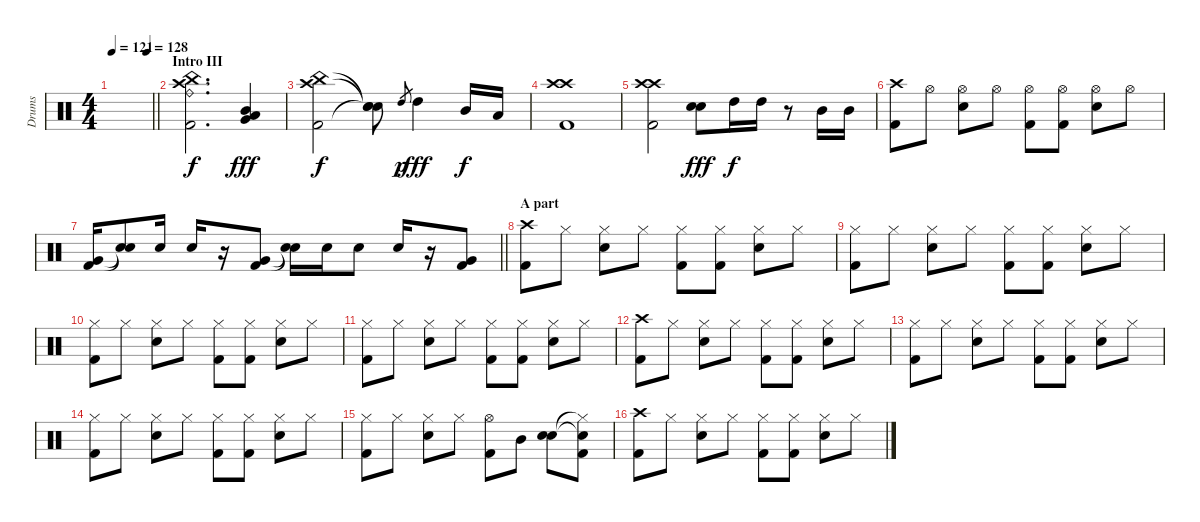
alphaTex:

\track ("Drums" "Drums") {instrument percussion}
\staff {score}
\articulation defaults
\ts (4 4)
\tempo 121
\tempo (128 0.875)
\clef neutral
\barLineRight lightlight
\ks c
|
\section ("" "Intro III")
("Ride (bell)" "Crash high (hit)" "China (hit)" "Kick (hit) 2").2{d} ("Mid Tom (hit)" "Low Floor Tom (hit)" "Very Low Tom (hit)").4{dy fff} |
("China (hit)" "Crash high (hit)" "Kick (hit) 2").2{dy f} ("Snare (hit)"{t} "Snare (hit)"{t} "Snare (hit)"{t}).8 "High Tom (hit)".8{gr dy p} "High Tom (hit)".4{dy fff} "Mid Tom (hit)".16{dy f} "Low Tom (hit)".16 |
("Crash high (hit)" "Crash high (hit)" "Kick (hit) 2").1 |
("Crash high (hit)" "Crash high (hit)" "Kick (hit) 2").2 ("Snare (hit) 2" "Snare (hit) 2").8{dy fff} "High Tom (hit)".16{dy f} "High Tom (hit)".16 r.8 "Mid Tom (hit)".16 "Mid Tom (hit)".16 |
("Crash high (hit)" "Kick (hit) 2").8 "Hi-Hat (open)".8 ("Hi-Hat (open)" "Snare (hit) 2").8 "Hi-Hat (open)".8 ("Hi-Hat (open)" "Kick (hit) 2").8 ("Hi-Hat (open)" "Kick (hit) 2").8 ("Hi-Hat (open)" "Snare (hit) 2").8 "Hi-Hat (open)".8 |
\barLineRight lightlight
("Very Low Tom (hit)" "Kick (hit) 2").16 ("Snare (hit)"{t} "Snare (hit)"{t}).8 "Snare (hit) 2".16 "Snare (hit) 2".16 r.16 ("Very Low Tom (hit)" "Kick (hit) 2").8 ("Snare (hit)"{t} "Snare (hit)"{t}).16 "Snare (hit) 2".16 "Snare (hit) 2".8 "Snare (hit) 2".16 r.16 ("Very Low Tom (hit)" "Kick (hit) 2").8 |
\section ("" "A part")
("Crash high (hit)" "Kick (hit) 2").8 "Hi-Hat (closed)".8{txt ""} ("Hi-Hat (closed)" "Snare (hit) 2").8 "Hi-Hat (closed)".8 ("Hi-Hat (closed)" "Kick (hit) 2").8 ("Hi-Hat (closed)" "Kick (hit) 2").8 ("Hi-Hat (closed)" "Snare (hit) 2").8 "Hi-Hat (closed)".8 |
("Hi-Hat (closed)" "Kick (hit) 2").8 "Hi-Hat (closed)".8 ("Hi-Hat (closed)" "Snare (hit) 2").8 "Hi-Hat (closed)".8 ("Hi-Hat (closed)" "Kick (hit) 2").8 ("Hi-Hat (closed)" "Kick (hit) 2").8 ("Hi-Hat (closed)" "Snare (hit) 2").8 "Hi-Hat (closed)".8 |
("Hi-Hat (closed)" "Kick (hit) 2").8 "Hi-Hat (closed)".8 ("Hi-Hat (closed)" "Snare (hit) 2").8 "Hi-Hat (closed)".8 ("Hi-Hat (closed)" "Kick (hit) 2").8 ("Hi-Hat (closed)" "Kick (hit) 2").8 ("Hi-Hat (closed)" "Snare (hit) 2").8 "Hi-Hat (closed)".8 |
("Hi-Hat (closed)" "Kick (hit) 2").8 "Hi-Hat (closed)".8 ("Hi-Hat (closed)" "Snare (hit) 2").8 "Hi-Hat (closed)".8 ("Hi-Hat (closed)" "Kick (hit) 2").8 ("Hi-Hat (closed)" "Kick (hit) 2").8 ("Hi-Hat (closed)" "Snare (hit) 2").8 "Hi-Hat (closed)".8 |
("Crash high (hit)" "Kick (hit) 2").8 "Hi-Hat (closed)".8 ("Hi-Hat (closed)" "Snare (hit) 2").8 "Hi-Hat (closed)".8 ("Hi-Hat (closed)" "Kick (hit) 2").8 ("Hi-Hat (closed)" "Kick (hit) 2").8 ("Hi-Hat (closed)" "Snare (hit) 2").8 "Hi-Hat (closed)".8 |
("Hi-Hat (closed)" "Kick (hit) 2").8 "Hi-Hat (closed)".8 ("Hi-Hat (closed)" "Snare (hit) 2").8 "Hi-Hat (closed)".8 ("Hi-Hat (closed)" "Kick (hit) 2").8 ("Hi-Hat (closed)" "Kick (hit) 2").8 ("Hi-Hat (closed)" "Snare (hit) 2").8 "Hi-Hat (closed)".8 |
("Hi-Hat (closed)" "Kick (hit) 2").8 "Hi-Hat (closed)".8 ("Hi-Hat (closed)" "Snare (hit) 2").8 "Hi-Hat (closed)".8 ("Hi-Hat (closed)" "Kick (hit) 2").8 ("Hi-Hat (closed)" "Kick (hit) 2").8 ("Hi-Hat (closed)" "Snare (hit) 2").8 "Hi-Hat (closed)".8 |
("Hi-Hat (closed)" "Kick (hit) 2").8 "Hi-Hat (closed)".8 ("Hi-Hat (closed)" "Snare (hit) 2").8 "Hi-Hat (closed)".8 ("Hi-Hat (open)" "Kick (hit) 2").8 "Mid Tom (hit)".8 ("Snare (hit) 2" "Snare (hit) 2").8 ("Hi-Hat (closed)"{t} "Snare (hit)"{t} "Kick (hit) 2").8 |
("Crash high (hit)" "Kick (hit) 2").8 "Hi-Hat (closed)".8 ("Hi-Hat (closed)" "Snare (hit) 2").8 "Hi-Hat (closed)".8 ("Hi-Hat (closed)" "Kick (hit) 2").8 ("Hi-Hat (closed)" "Kick (hit) 2").8 ("Hi-Hat (closed)" "Snare (hit) 2").8 "Hi-Hat (closed)".8
